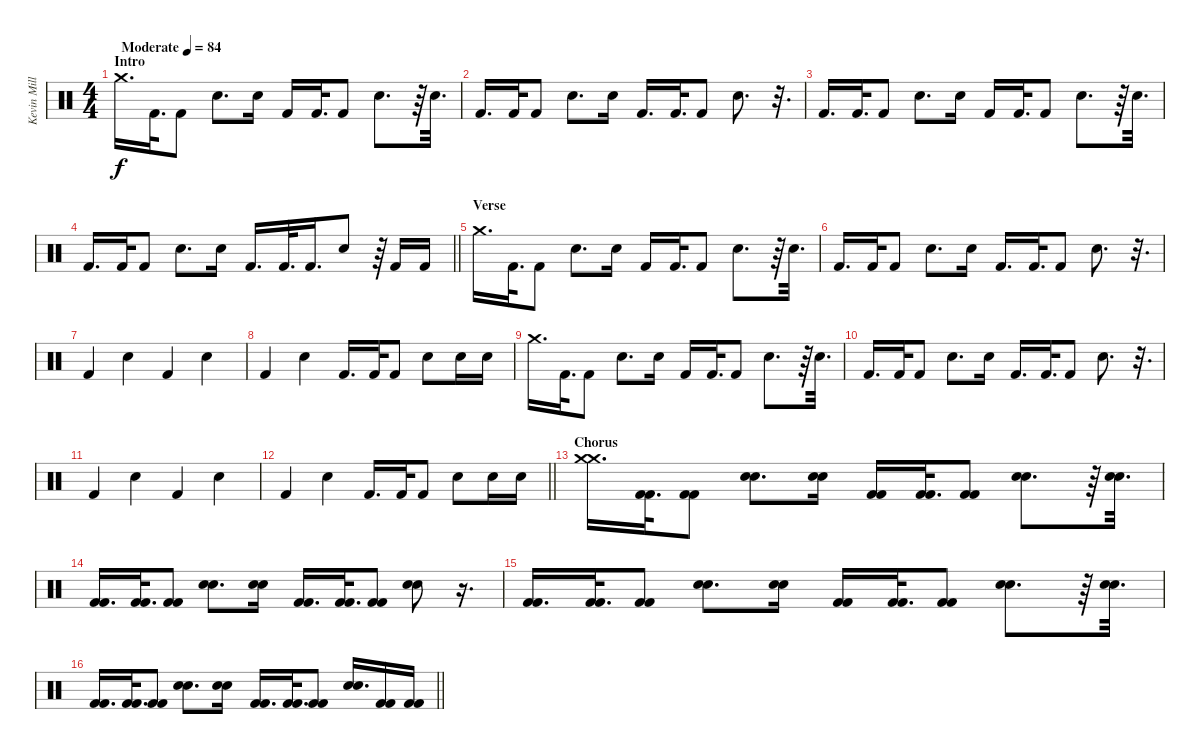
\track ("Kevin Miller (Drums)" "Kevin Mill") {instrument percussion}
\staff {score}
\articulation defaults
\ts (4 4)
\section ("" "Intro")
\tempo (84 "Moderate")
\clef neutral
\ks c "Crash medium (hit)".16{d dy f} "Kick (hit) 2".32{d} "Kick (hit) 2".8 "Electric Snare (hit)".8{d} "Electric Snare (hit)".16 "Kick (hit) 2".16 "Kick (hit) 2".32{d} "Kick (hit) 2".8 "Electric Snare (hit)".8{d}
r.64 "Electric Snare (hit)".32{d} |
"Kick (hit) 2".16{d} "Kick (hit) 2".32 "Kick (hit) 2".8 "Electric Snare (hit)".8{d} "Electric Snare (hit)".16 "Kick (hit) 2".16{d} "Kick (hit) 2".32{d} "Kick (hit) 2".8 "Electric Snare (hit)".8{d} r.32{d} |
"Kick (hit) 2".16{d} "Kick (hit) 2".32{d} "Kick (hit) 2".8 "Electric Snare (hit)".8{d} "Electric Snare (hit)".16 "Kick (hit) 2".16 "Kick (hit) 2".32{d} "Kick (hit) 2".8 "Electric Snare (hit)".8{d} r.64 "Electric Snare (hit)".32{d} |
\barLineRight lightlight "Kick (hit) 2".16{d} "Kick (hit) 2".32 "Kick (hit) 2".8 "Electric Snare (hit)".8{d} "Electric Snare (hit)".16 "Kick (hit) 2".16{d} "Kick (hit) 2".32{d} "Kick (hit) 2".16{d} "Electric Snare (hit)".8
r.64 "Kick (hit) 2".16 "Kick (hit) 2".16 |
\section ("" "Verse")
"Crash medium (hit)".16{d} "Kick (hit) 2".32{d} "Kick (hit) 2".8 "Electric Snare (hit)".8{d} "Electric Snare (hit)".16 "Kick (hit) 2".16 "Kick (hit) 2".32{d} "Kick (hit) 2".8 "Electric Snare (hit)".8{d} r.64 "Electric Snare (hit)".32{d} |
"Kick (hit) 2".16{d} "Kick (hit) 2".32 "Kick (hit) 2".8 "Electric Snare (hit)".8{d} "Electric Snare (hit)".16 "Kick (hit) 2".16{d} "Kick (hit) 2".32{d} "Kick (hit) 2".8 "Electric Snare (hit)".8{d} r.32{d} |
"Kick (hit) 2".4 "Electric Snare (hit)".4 "Kick (hit) 2".4 "Electric Snare (hit)".4 |
"Kick (hit) 2".4 "Electric Snare (hit)".4 "Kick (hit) 2".16{d} "Kick (hit) 2".32 "Kick (hit) 2".8 "Electric Snare (hit)".8 "Electric Snare (hit)".16 "Electric Snare (hit)".16 |
"Crash medium (hit)".16{d} "Kick (hit) 2".32{d} "Kick (hit) 2".8 "Electric Snare (hit)".8{d} "Electric Snare (hit)".16 "Kick (hit) 2".16 "Kick (hit) 2".32{d} "Kick (hit) 2".8 "Electric Snare (hit)".8{d} r.64 "Electric Snare (hit)".32{d} |
"Kick (hit) 2".16{d} "Kick (hit) 2".32 "Kick (hit) 2".8 "Electric Snare (hit)".8{d} "Electric Snare (hit)".16 "Kick (hit) 2".16{d} "Kick (hit) 2".32{d} "Kick (hit) 2".8 "Electric Snare (hit)".8{d} r.32{d} |
"Kick (hit) 2".4 "Electric Snare (hit)".4 "Kick (hit) 2".4 "Electric Snare (hit)".4 |
\barLineRight lightlight "Kick (hit) 2".4 "Electric Snare (hit)".4 "Kick (hit) 2".16{d} "Kick (hit) 2".32 "Kick (hit) 2".8 "Electric Snare (hit)".8 "Electric Snare (hit)".16 "Electric Snare (hit)".16
|
\section ("" "Chorus")
("Crash medium (hit)" "Crash medium (hit)").16{d} ("Kick (hit) 2" "Kick (hit) 2").32{d} ("Kick (hit) 2" "Kick (hit) 2").8 ("Electric Snare (hit)" "Electric Snare (hit)").8{d} ("Electric Snare (hit)" "Electric Snare (hit)").16 ("Kick (hit) 2" "Kick (hit) 2").16 ("Kick (hit) 2" "Kick (hit) 2").32{d} ("Kick (hit) 2" "Kick (hit) 2").8 ("Electric Snare (hit)" "Electric Snare (hit)").8{d} r.64 ("Electric Snare (hit)" "Electric Snare (hit)").32{d} |
("Kick (hit) 2" "Kick (hit) 2").16{d} ("Kick (hit) 2" "Kick (hit) 2").32{d} ("Kick (hit) 2" "Kick (hit) 2").8 ("Electric Snare (hit)" "Electric Snare (hit)").8{d} ("Electric Snare (hit)" "Electric Snare (hit)").16 ("Kick (hit) 2" "Kick (hit) 2").16{d} ("Kick (hit) 2" "Kick (hit) 2").32{d} ("Kick (hit) 2" "Kick (hit) 2").8 ("Electric Snare (hit)" "Electric Snare (hit)").8 r.16{d} |
("Kick (hit) 2" "Kick (hit) 2").16{d} ("Kick (hit) 2" "Kick (hit) 2").32{d} ("Kick (hit) 2" "Kick (hit) 2").8 ("Electric Snare (hit)" "Electric Snare (hit)").8{d} ("Electric Snare (hit)" "Electric Snare (hit)").16 ("Kick (hit) 2" "Kick (hit) 2").16 ("Kick (hit) 2" "Kick (hit) 2").32{d} ("Kick (hit) 2" "Kick (hit) 2").8 ("Electric Snare (hit)" "Electric Snare (hit)").8{d} r.64 ("Electric Snare (hit)" "Electric Snare (hit)").32{d} |
\barLineRight lightlight
("Kick (hit) 2" "Kick (hit) 2").16{d} ("Kick (hit) 2" "Kick (hit) 2").32{d} ("Kick (hit) 2" "Kick (hit) 2").8 ("Electric Snare (hit)" "Electric Snare (hit)").8{d} ("Electric Snare (hit)" "Electric Snare (hit)").16 ("Kick (hit) 2" "Kick (hit) 2").16{d} ("Kick (hit) 2" "Kick (hit) 2").32{d} ("Kick (hit) 2" "Kick (hit) 2").8 ("Electric Snare (hit)" "Electric Snare (hit)").16{d} ("Kick (hit) 2" "Kick (hit) 2").16 ("Kick (hit) 2" "Kick (hit) 2").16
